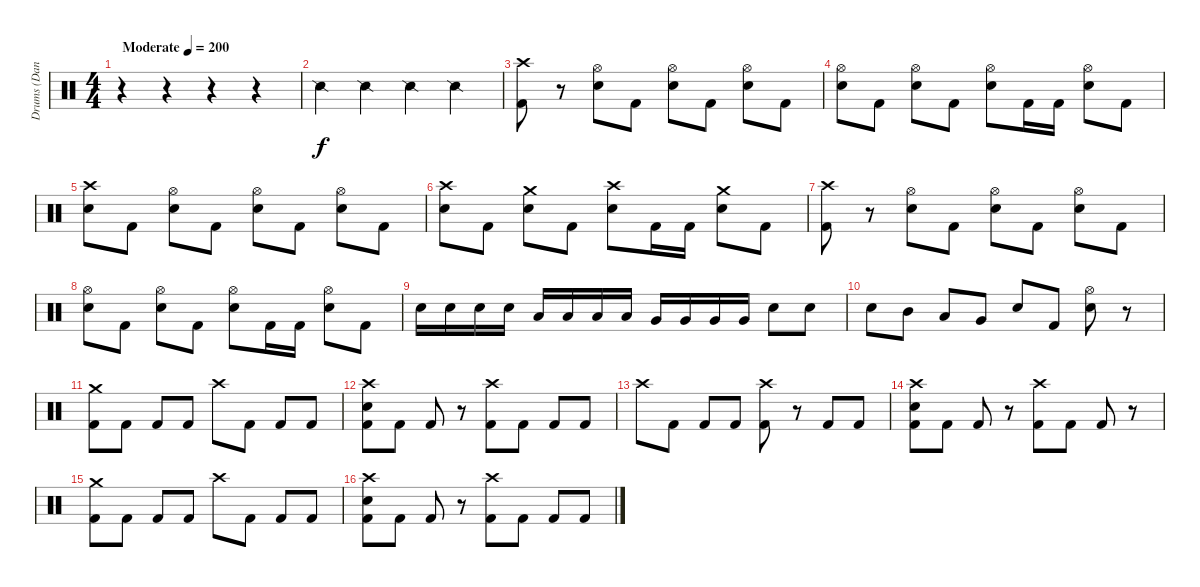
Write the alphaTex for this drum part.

\track ("Drums (Daniel)" "Drums (Dan") {instrument percussion}
\staff {score}
\articulation defaults
\ts (4 4)
\tempo (200 "Moderate")
\clef neutral
\ks c
r.4{dy f} r.4 r.4 r.4 |
"Snare (side stick) 2".4 "Snare (side stick) 2".4 "Snare (side stick) 2".4 "Snare (side stick) 2".4 |
("Crash high (hit)" "Kick (hit) 2").8 r.8 ("Hi-Hat (open)" "Electric Snare (hit)").8 "Kick (hit) 2".8 ("Hi-Hat (open)" "Electric Snare (hit)").8 "Kick (hit) 2".8 ("Hi-Hat (open)" "Electric Snare (hit)").8 "Kick (hit) 2".8 |
("Hi-Hat (open)" "Electric Snare (hit)").8 "Kick (hit) 2".8 ("Hi-Hat (open)" "Electric Snare (hit)").8 "Kick (hit) 2".8 ("Hi-Hat (open)" "Electric Snare (hit)").8 "Kick (hit) 2".16 "Kick (hit) 2".16 ("Hi-Hat (open)" "Electric Snare (hit)").8 "Kick (hit) 2".8 |
("Crash high (hit)" "Electric Snare (hit)").8 "Kick (hit) 2".8 ("Hi-Hat (open)" "Electric Snare (hit)").8 "Kick (hit) 2".8 ("Hi-Hat (open)" "Electric Snare (hit)").8 "Kick (hit) 2".8 ("Hi-Hat (open)" "Electric Snare (hit)").8 "Kick (hit) 2".8 |
("Crash high (hit)" "Electric Snare (hit)").8 "Kick (hit) 2".8 ("Crash medium (hit)" "Electric Snare (hit)").8 "Kick (hit) 2".8 ("Crash high (hit)" "Electric Snare (hit)").8 "Kick (hit) 2".16 "Kick (hit) 2".16 ("Crash medium (hit)" "Electric Snare (hit)").8 "Kick (hit) 2".8 |
("Crash high (hit)" "Kick (hit) 2").8 r.8 ("Hi-Hat (open)" "Electric Snare (hit)").8 "Kick (hit) 2".8 ("Hi-Hat (open)" "Electric Snare (hit)").8 "Kick (hit) 2".8 ("Hi-Hat (open)" "Electric Snare (hit)").8 "Kick (hit) 2".8 |
("Hi-Hat (open)" "Electric Snare (hit)").8 "Kick (hit) 2".8 ("Hi-Hat (open)" "Electric Snare (hit)").8 "Kick (hit) 2".8 ("Hi-Hat (open)" "Electric Snare (hit)").8 "Kick (hit) 2".16 "Kick (hit) 2".16 ("Hi-Hat (open)" "Electric Snare (hit)").8 "Kick (hit) 2".8 |
"Electric Snare (hit)".16 "Electric Snare (hit)".16 "Electric Snare (hit)".16 "Electric Snare (hit)".16 "Low Tom (hit)".16 "Low Tom (hit)".16 "Low Tom (hit)".16 "Low Tom (hit)".16 "Very Low Tom (hit)".16 "Very Low Tom (hit)".16 "Very Low Tom (hit)".16 "Very Low Tom (hit)".16 "Electric Snare (hit)".8 "Electric Snare (hit)".8 |
"Electric Snare (hit)".8 "Mid Tom (hit)".8 "Low Tom (hit)".8 "Very Low Tom (hit)".8 "Electric Snare (hit)".8 "Kick (hit) 2".8 ("Hi-Hat (open)" "Electric Snare (hit)").8 r.8 |
("Crash medium (hit)" "Kick (hit) 2").8 "Kick (hit) 2".8 "Kick (hit) 2".8 "Kick (hit) 2".8 "Crash high (hit)".8 "Kick (hit) 2".8 "Kick (hit) 2".8 "Kick (hit) 2".8 |
("Crash high (hit)" "Electric Snare (hit)" "Kick (hit) 2").8 "Kick (hit) 2".8 "Kick (hit) 2".8 r.8 ("Crash high (hit)" "Kick (hit) 2").8 "Kick (hit) 2".8 "Kick (hit) 2".8 "Kick (hit) 2".8 |
"Crash high (hit)".8 "Kick (hit) 2".8 "Kick (hit) 2".8 "Kick (hit) 2".8 ("Crash high (hit)" "Kick (hit) 2").8 r.8 "Kick (hit) 2".8 "Kick (hit) 2".8 |
("Crash high (hit)" "Electric Snare (hit)" "Kick (hit) 2").8 "Kick (hit) 2".8 "Kick (hit) 2".8 r.8 ("Crash high (hit)" "Kick (hit) 2").8 "Kick (hit) 2".8 "Kick (hit) 2".8 r.8 |
("Crash medium (hit)" "Kick (hit) 2").8 "Kick (hit) 2".8 "Kick (hit) 2".8 "Kick (hit) 2".8 "Crash high (hit)".8 "Kick (hit) 2".8 "Kick (hit) 2".8 "Kick (hit) 2".8 |
("Crash high (hit)" "Electric Snare (hit)" "Kick (hit) 2").8 "Kick (hit) 2".8 "Kick (hit) 2".8 r.8 ("Crash high (hit)" "Kick (hit) 2").8 "Kick (hit) 2".8 "Kick (hit) 2".8 "Kick (hit) 2".8
